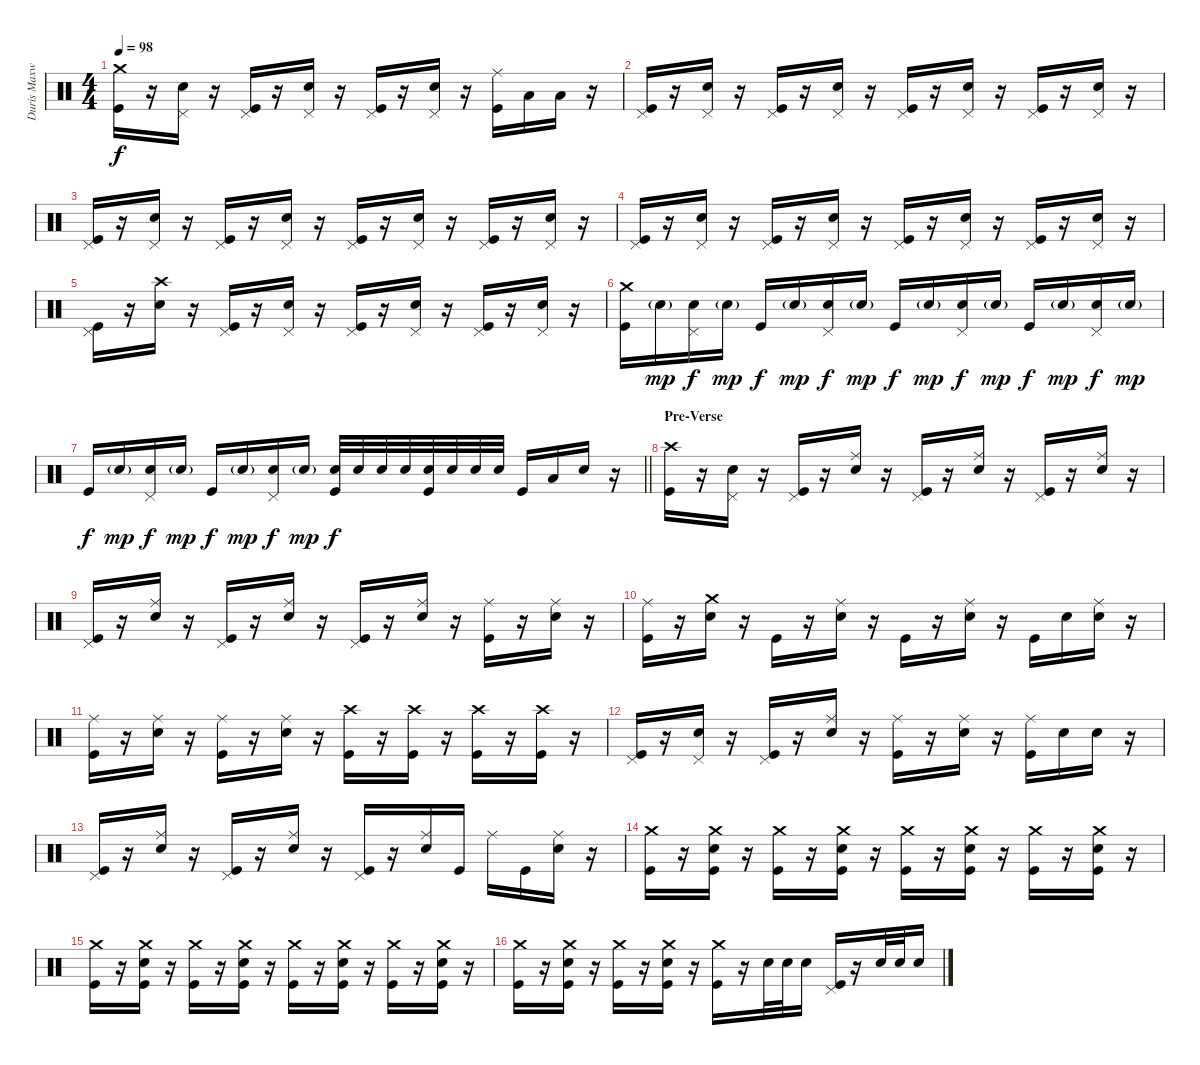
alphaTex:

\track ("Duris Maxwell" "Duris Maxw") {instrument percussion}
\staff {score}
\articulation defaults
\ts (4 4)
\tempo 98
\clef neutral
\ks c
("Crash medium (hit)" "Kick (hit)").16{dy f} r.16 ("Pedal Hi-Hat (hit)" "Snare (hit) 2").16 r.16 ("Pedal Hi-Hat (hit)" "Kick (hit)").16 r.16 ("Pedal Hi-Hat (hit)" "Snare (hit) 2").16 r.16 ("Pedal Hi-Hat (hit)" "Kick (hit)").16 r.16 ("Pedal Hi-Hat (hit)" "Snare (hit) 2").16 r.16 ("Ride (middle)" "Kick (hit)").16 "Low Tom (hit)".16 "Low Tom (hit)".16 r.16 |
("Pedal Hi-Hat (hit)" "Kick (hit)").16 r.16 ("Pedal Hi-Hat (hit)" "Snare (hit) 2").16 r.16 ("Pedal Hi-Hat (hit)" "Kick (hit)").16 r.16 ("Pedal Hi-Hat (hit)" "Snare (hit) 2").16 r.16 ("Pedal Hi-Hat (hit)" "Kick (hit)").16 r.16 ("Pedal Hi-Hat (hit)" "Snare (hit) 2").16 r.16 ("Pedal Hi-Hat (hit)" "Kick (hit)").16 r.16 ("Pedal Hi-Hat (hit)" "Snare (hit) 2").16 r.16 |
("Pedal Hi-Hat (hit)" "Kick (hit)").16 r.16 ("Pedal Hi-Hat (hit)" "Snare (hit) 2").16 r.16 ("Pedal Hi-Hat (hit)" "Kick (hit)").16 r.16 ("Pedal Hi-Hat (hit)" "Snare (hit) 2").16 r.16 ("Pedal Hi-Hat (hit)" "Kick (hit)").16 r.16 ("Pedal Hi-Hat (hit)" "Snare (hit) 2").16 r.16 ("Pedal Hi-Hat (hit)" "Kick (hit)").16 r.16 ("Pedal Hi-Hat (hit)" "Snare (hit) 2").16 r.16 |
("Pedal Hi-Hat (hit)" "Kick (hit)").16 r.16 ("Pedal Hi-Hat (hit)" "Snare (hit) 2").16 r.16 ("Pedal Hi-Hat (hit)" "Kick (hit)").16 r.16 ("Pedal Hi-Hat (hit)" "Snare (hit) 2").16 r.16 ("Pedal Hi-Hat (hit)" "Kick (hit)").16 r.16 ("Pedal Hi-Hat (hit)" "Snare (hit) 2").16 r.16 ("Pedal Hi-Hat (hit)" "Kick (hit)").16 r.16 ("Pedal Hi-Hat (hit)" "Snare (hit) 2").16 r.16 |
("Pedal Hi-Hat (hit)" "Kick (hit)").16 r.16 ("Crash high (hit)" "Snare (hit) 2").16 r.16 ("Pedal Hi-Hat (hit)" "Kick (hit)").16 r.16 ("Pedal Hi-Hat (hit)" "Snare (hit) 2").16 r.16 ("Pedal Hi-Hat (hit)" "Kick (hit)").16 r.16 ("Pedal Hi-Hat (hit)" "Snare (hit) 2").16 r.16 ("Pedal Hi-Hat (hit)" "Kick (hit)").16 r.16 ("Pedal Hi-Hat (hit)" "Snare (hit) 2").16 r.16 |
("Crash medium (hit)" "Kick (hit)").16 "Snare (hit) 2"{g}.16{dy mp} ("Pedal Hi-Hat (hit)" "Snare (hit) 2").16{dy f} "Snare (hit) 2"{g}.16{dy mp} "Kick (hit)".16{dy f} "Snare (hit) 2"{g}.16{dy mp} ("Pedal Hi-Hat (hit)" "Snare (hit) 2").16{dy f} "Snare (hit) 2"{g}.16{dy mp} "Kick (hit)".16{dy f} "Snare (hit) 2"{g}.16{dy mp} ("Pedal Hi-Hat (hit)" "Snare (hit) 2").16{dy f} "Snare (hit) 2"{g}.16{dy mp} "Kick (hit)".16{dy f} "Snare (hit) 2"{g}.16{dy mp} ("Pedal Hi-Hat (hit)" "Snare (hit) 2").16{dy f} "Snare (hit) 2"{g}.16{dy mp} |
\barLineRight lightlight "Kick (hit)".16{dy f} "Snare (hit) 2"{g}.16{dy mp}
("Pedal Hi-Hat (hit)" "Snare (hit) 2").16{dy f} "Snare (hit) 2"{g}.16{dy mp} "Kick (hit)".16{dy f} "Snare (hit) 2"{g}.16{dy mp} ("Pedal Hi-Hat (hit)" "Snare (hit) 2").16{dy f} "Snare (hit) 2"{g}.16{dy mp} ("Snare (hit) 2" "Kick (hit)").32{dy f} "Snare (hit) 2".32 "Snare (hit) 2".32 "Snare (hit) 2".32 ("Snare (hit) 2" "Kick (hit)").32 "Snare (hit) 2".32 "Snare (hit) 2".32 "Snare (hit) 2".32 "Kick (hit)".16 "Low Tom (hit)".16 "Snare (hit) 2".16 r.16 |
\section ("" "Pre-Verse")
("Crash high (hit)" "Kick (hit)").16 r.16 ("Pedal Hi-Hat (hit)" "Snare (hit) 2").16 r.16 ("Pedal Hi-Hat (hit)" "Kick (hit)").16 r.16 ("Ride (middle)" "Snare (hit) 2").16 r.16 ("Pedal Hi-Hat (hit)" "Kick (hit)").16 r.16 ("Ride (middle)" "Snare (hit) 2").16 r.16 ("Pedal Hi-Hat (hit)" "Kick (hit)").16 r.16 ("Ride (middle)" "Snare (hit) 2").16 r.16 |
("Pedal Hi-Hat (hit)" "Kick (hit)").16 r.16 ("Ride (middle)" "Snare (hit) 2").16 r.16 ("Pedal Hi-Hat (hit)" "Kick (hit)").16 r.16 ("Ride (middle)" "Snare (hit) 2").16 r.16 ("Pedal Hi-Hat (hit)" "Kick (hit)").16 r.16 ("Ride (middle)" "Snare (hit) 2").16 r.16 ("Ride (middle)" "Kick (hit)").16 r.16 ("Ride (middle)" "Snare (hit) 2").16 r.16 |
("Ride (middle)" "Kick (hit)").16 r.16 ("Crash medium (hit)" "Snare (hit) 2").16 r.16 "Kick (hit)".16 r.16 ("Ride (middle)" "Snare (hit) 2").16 r.16 "Kick (hit)".16 r.16 ("Ride (middle)" "Snare (hit) 2").16 r.16 "Kick (hit)".16 "Snare (hit) 2".16 ("Ride (middle)" "Snare (hit) 2").16 r.16 |
("Ride (middle)" "Kick (hit)").16 r.16 ("Ride (middle)" "Snare (hit) 2").16 r.16 ("Ride (middle)" "Kick (hit)").16 r.16 ("Ride (middle)" "Snare (hit) 2").16 r.16 ("Crash high (hit)" "Kick (hit)").16 r.16 ("Crash high (hit)" "Kick (hit)").16 r.16 ("Crash high (hit)" "Kick (hit)").16 r.16 ("Crash high (hit)" "Kick (hit)").16 r.16 |
("Pedal Hi-Hat (hit)" "Kick (hit)").16 r.16 ("Pedal Hi-Hat (hit)" "Snare (hit) 2").16 r.16 ("Pedal Hi-Hat (hit)" "Kick (hit)").16 r.16 ("Ride (middle)" "Snare (hit) 2").16 r.16 ("Ride (middle)" "Kick (hit)").16 r.16 ("Ride (middle)" "Snare (hit) 2").16 r.16 ("Ride (middle)" "Kick (hit)").16 "Snare (hit) 2".16 "Snare (hit) 2".16 r.16 |
("Pedal Hi-Hat (hit)" "Kick (hit)").16 r.16 ("Ride (middle)" "Snare (hit) 2").16 r.16 ("Pedal Hi-Hat (hit)" "Kick (hit)").16 r.16 ("Ride (middle)" "Snare (hit) 2").16 r.16 ("Pedal Hi-Hat (hit)" "Kick (hit)").16 r.16 ("Ride (middle)" "Snare (hit) 2").16 "Kick (hit)".16 "Ride (middle)".16 "Kick (hit)".16 ("Ride (middle)" "Snare (hit) 2").16 r.16 |
("Crash medium (hit)" "Kick (hit)").16 r.16 ("Crash medium (hit)" "Snare (hit) 2" "Kick (hit)").16 r.16 ("Crash medium (hit)" "Kick (hit)").16 r.16 ("Crash medium (hit)" "Snare (hit) 2" "Kick (hit)").16 r.16 ("Crash medium (hit)" "Kick (hit)").16 r.16 ("Crash medium (hit)" "Snare (hit) 2" "Kick (hit)").16 r.16 ("Crash medium (hit)" "Kick (hit)").16 r.16 ("Crash medium (hit)" "Snare (hit) 2" "Kick (hit)").16 r.16 |
("Crash medium (hit)" "Kick (hit)").16 r.16 ("Crash medium (hit)" "Snare (hit) 2" "Kick (hit)").16 r.16 ("Crash medium (hit)" "Kick (hit)").16 r.16 ("Crash medium (hit)" "Snare (hit) 2" "Kick (hit)").16 r.16 ("Crash medium (hit)" "Kick (hit)").16 r.16 ("Crash medium (hit)" "Snare (hit) 2" "Kick (hit)").16 r.16 ("Crash medium (hit)" "Kick (hit)").16 r.16 ("Crash medium (hit)" "Snare (hit) 2" "Kick (hit)").16 r.16 |
("Crash medium (hit)" "Kick (hit)").16 r.16 ("Crash medium (hit)" "Snare (hit) 2" "Kick (hit)").16 r.16 ("Crash medium (hit)" "Kick (hit)").16 r.16 ("Crash medium (hit)" "Snare (hit) 2" "Kick (hit)").16 r.16 ("Crash medium (hit)" "Kick (hit)").16 r.16 "Snare (hit) 2".32 "Snare (hit) 2".32 "Snare (hit) 2".16 ("Pedal Hi-Hat (hit)" "Kick (hit)").16 r.16 "Snare (hit) 2".32 "Snare (hit) 2".32 "Snare (hit) 2".16
